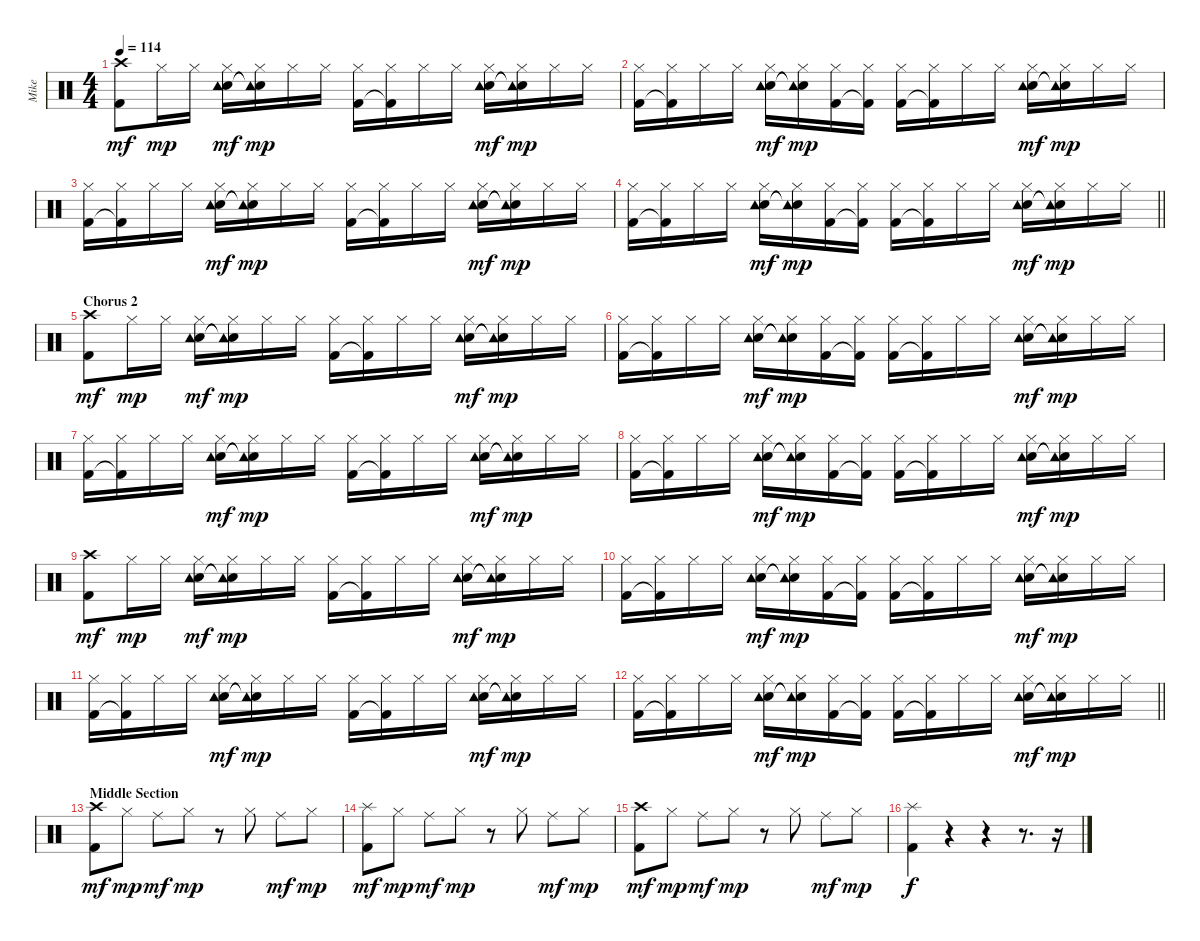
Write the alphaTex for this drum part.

\track ("Mike" "Mike") {instrument percussion}
\staff {score}
\articulation defaults
\ts (4 4)
\tempo 114
\clef neutral
\ks c
("Crash high (hit)" "Kick (hit) 2").8{dy mf} "Hi-Hat (closed)".16{dy mp} "Hi-Hat (closed)".16 ("Hi-Hat (closed)" "Electric Snare (hit)" "Tambourine (hit)").16{dy mf} ("Hi-Hat (closed)" "Electric Snare (hit)"{t} "Tambourine (hit)"{t}).16{dy mp} "Hi-Hat (closed)".16 "Hi-Hat (closed)".16 ("Hi-Hat (closed)" "Kick (hit) 2").16 ("Hi-Hat (closed)" "Kick (hit) 2"{t}).16 "Hi-Hat (closed)".16 "Hi-Hat (closed)".16 ("Hi-Hat (closed)" "Electric Snare (hit)" "Tambourine (hit)").16{dy mf} ("Hi-Hat (closed)" "Electric Snare (hit)"{t} "Tambourine (hit)"{t}).16{dy mp} "Hi-Hat (closed)".16 "Hi-Hat (closed)".16 |
("Hi-Hat (closed)" "Kick (hit) 2").16 ("Hi-Hat (closed)" "Kick (hit) 2"{t}).16 "Hi-Hat (closed)".16 "Hi-Hat (closed)".16 ("Hi-Hat (closed)" "Electric Snare (hit)" "Tambourine (hit)").16{dy mf} ("Hi-Hat (closed)" "Electric Snare (hit)"{t} "Tambourine (hit)"{t}).16{dy mp} ("Hi-Hat (closed)" "Kick (hit) 2").16 ("Hi-Hat (closed)" "Kick (hit) 2"{t}).16 ("Hi-Hat (closed)" "Kick (hit) 2").16 ("Hi-Hat (closed)" "Kick (hit) 2"{t}).16 "Hi-Hat (closed)".16 "Hi-Hat (closed)".16 ("Hi-Hat (closed)" "Electric Snare (hit)" "Tambourine (hit)").16{dy mf} ("Hi-Hat (closed)" "Electric Snare (hit)"{t} "Tambourine (hit)"{t}).16{dy mp} "Hi-Hat (closed)".16 "Hi-Hat (closed)".16 |
("Hi-Hat (closed)" "Kick (hit) 2").16 ("Hi-Hat (closed)" "Kick (hit) 2"{t}).16 "Hi-Hat (closed)".16 "Hi-Hat (closed)".16 ("Hi-Hat (closed)" "Electric Snare (hit)" "Tambourine (hit)").16{dy mf} ("Hi-Hat (closed)" "Electric Snare (hit)"{t} "Tambourine (hit)"{t}).16{dy mp} "Hi-Hat (closed)".16 "Hi-Hat (closed)".16 ("Hi-Hat (closed)" "Kick (hit) 2").16 ("Hi-Hat (closed)" "Kick (hit) 2"{t}).16 "Hi-Hat (closed)".16 "Hi-Hat (closed)".16 ("Hi-Hat (closed)" "Electric Snare (hit)" "Tambourine (hit)").16{dy mf} ("Hi-Hat (closed)" "Electric Snare (hit)"{t} "Tambourine (hit)"{t}).16{dy mp} "Hi-Hat (closed)".16 "Hi-Hat (closed)".16 |
\barLineRight lightlight
("Hi-Hat (closed)" "Kick (hit) 2").16 ("Hi-Hat (closed)" "Kick (hit) 2"{t}).16 "Hi-Hat (closed)".16 "Hi-Hat (closed)".16 ("Hi-Hat (closed)" "Electric Snare (hit)" "Tambourine (hit)").16{dy mf} ("Hi-Hat (closed)" "Electric Snare (hit)"{t} "Tambourine (hit)"{t}).16{dy mp} ("Hi-Hat (closed)" "Kick (hit) 2").16 ("Hi-Hat (closed)" "Kick (hit) 2"{t}).16 ("Hi-Hat (closed)" "Kick (hit) 2").16 ("Hi-Hat (closed)" "Kick (hit) 2"{t}).16 "Hi-Hat (closed)".16 "Hi-Hat (closed)".16 ("Hi-Hat (closed)" "Electric Snare (hit)" "Tambourine (hit)").16{dy mf} ("Hi-Hat (closed)" "Electric Snare (hit)"{t} "Tambourine (hit)"{t}).16{dy mp} "Hi-Hat (closed)".16 "Hi-Hat (closed)".16 |
\section ("" "Chorus 2")
("Crash high (hit)" "Kick (hit) 2").8{dy mf} "Hi-Hat (closed)".16{dy mp} "Hi-Hat (closed)".16 ("Hi-Hat (closed)" "Electric Snare (hit)" "Tambourine (hit)").16{dy mf} ("Hi-Hat (closed)" "Electric Snare (hit)"{t} "Tambourine (hit)"{t}).16{dy mp} "Hi-Hat (closed)".16 "Hi-Hat (closed)".16 ("Hi-Hat (closed)" "Kick (hit) 2").16 ("Hi-Hat (closed)" "Kick (hit) 2"{t}).16 "Hi-Hat (closed)".16 "Hi-Hat (closed)".16 ("Hi-Hat (closed)" "Electric Snare (hit)" "Tambourine (hit)").16{dy mf} ("Hi-Hat (closed)" "Electric Snare (hit)"{t} "Tambourine (hit)"{t}).16{dy mp} "Hi-Hat (closed)".16 "Hi-Hat (closed)".16 |
("Hi-Hat (closed)" "Kick (hit) 2").16 ("Hi-Hat (closed)" "Kick (hit) 2"{t}).16 "Hi-Hat (closed)".16 "Hi-Hat (closed)".16 ("Hi-Hat (closed)" "Electric Snare (hit)" "Tambourine (hit)").16{dy mf} ("Hi-Hat (closed)" "Electric Snare (hit)"{t} "Tambourine (hit)"{t}).16{dy mp} ("Hi-Hat (closed)" "Kick (hit) 2").16 ("Hi-Hat (closed)" "Kick (hit) 2"{t}).16 ("Hi-Hat (closed)" "Kick (hit) 2").16 ("Hi-Hat (closed)" "Kick (hit) 2"{t}).16 "Hi-Hat (closed)".16 "Hi-Hat (closed)".16 ("Hi-Hat (closed)" "Electric Snare (hit)" "Tambourine (hit)").16{dy mf} ("Hi-Hat (closed)" "Electric Snare (hit)"{t} "Tambourine (hit)"{t}).16{dy mp} "Hi-Hat (closed)".16 "Hi-Hat (closed)".16 |
("Hi-Hat (closed)" "Kick (hit) 2").16 ("Hi-Hat (closed)" "Kick (hit) 2"{t}).16 "Hi-Hat (closed)".16 "Hi-Hat (closed)".16 ("Hi-Hat (closed)" "Electric Snare (hit)" "Tambourine (hit)").16{dy mf} ("Hi-Hat (closed)" "Electric Snare (hit)"{t} "Tambourine (hit)"{t}).16{dy mp} "Hi-Hat (closed)".16 "Hi-Hat (closed)".16 ("Hi-Hat (closed)" "Kick (hit) 2").16 ("Hi-Hat (closed)" "Kick (hit) 2"{t}).16 "Hi-Hat (closed)".16 "Hi-Hat (closed)".16 ("Hi-Hat (closed)" "Electric Snare (hit)" "Tambourine (hit)").16{dy mf} ("Hi-Hat (closed)" "Electric Snare (hit)"{t} "Tambourine (hit)"{t}).16{dy mp} "Hi-Hat (closed)".16 "Hi-Hat (closed)".16 |
("Hi-Hat (closed)" "Kick (hit) 2").16 ("Hi-Hat (closed)" "Kick (hit) 2"{t}).16 "Hi-Hat (closed)".16 "Hi-Hat (closed)".16 ("Hi-Hat (closed)" "Electric Snare (hit)" "Tambourine (hit)").16{dy mf} ("Hi-Hat (closed)" "Electric Snare (hit)"{t} "Tambourine (hit)"{t}).16{dy mp} ("Hi-Hat (closed)" "Kick (hit) 2").16 ("Hi-Hat (closed)" "Kick (hit) 2"{t}).16 ("Hi-Hat (closed)" "Kick (hit) 2").16 ("Hi-Hat (closed)" "Kick (hit) 2"{t}).16 "Hi-Hat (closed)".16 "Hi-Hat (closed)".16 ("Hi-Hat (closed)" "Electric Snare (hit)" "Tambourine (hit)").16{dy mf} ("Hi-Hat (closed)" "Electric Snare (hit)"{t} "Tambourine (hit)"{t}).16{dy mp} "Hi-Hat (closed)".16 "Hi-Hat (closed)".16 |
("Crash high (hit)" "Kick (hit) 2").8{dy mf} "Hi-Hat (closed)".16{dy mp} "Hi-Hat (closed)".16 ("Hi-Hat (closed)" "Electric Snare (hit)" "Tambourine (hit)").16{dy mf} ("Hi-Hat (closed)" "Electric Snare (hit)"{t} "Tambourine (hit)"{t}).16{dy mp} "Hi-Hat (closed)".16 "Hi-Hat (closed)".16 ("Hi-Hat (closed)" "Kick (hit) 2").16 ("Hi-Hat (closed)" "Kick (hit) 2"{t}).16 "Hi-Hat (closed)".16 "Hi-Hat (closed)".16 ("Hi-Hat (closed)" "Electric Snare (hit)" "Tambourine (hit)").16{dy mf} ("Hi-Hat (closed)" "Electric Snare (hit)"{t} "Tambourine (hit)"{t}).16{dy mp} "Hi-Hat (closed)".16 "Hi-Hat (closed)".16 |
("Hi-Hat (closed)" "Kick (hit) 2").16 ("Hi-Hat (closed)" "Kick (hit) 2"{t}).16 "Hi-Hat (closed)".16 "Hi-Hat (closed)".16 ("Hi-Hat (closed)" "Electric Snare (hit)" "Tambourine (hit)").16{dy mf} ("Hi-Hat (closed)" "Electric Snare (hit)"{t} "Tambourine (hit)"{t}).16{dy mp} ("Hi-Hat (closed)" "Kick (hit) 2").16 ("Hi-Hat (closed)" "Kick (hit) 2"{t}).16 ("Hi-Hat (closed)" "Kick (hit) 2").16 ("Hi-Hat (closed)" "Kick (hit) 2"{t}).16 "Hi-Hat (closed)".16 "Hi-Hat (closed)".16 ("Hi-Hat (closed)" "Electric Snare (hit)" "Tambourine (hit)").16{dy mf} ("Hi-Hat (closed)" "Electric Snare (hit)"{t} "Tambourine (hit)"{t}).16{dy mp} "Hi-Hat (closed)".16 "Hi-Hat (closed)".16 |
("Hi-Hat (closed)" "Kick (hit) 2").16 ("Hi-Hat (closed)" "Kick (hit) 2"{t}).16 "Hi-Hat (closed)".16 "Hi-Hat (closed)".16 ("Hi-Hat (closed)" "Electric Snare (hit)" "Tambourine (hit)").16{dy mf} ("Hi-Hat (closed)" "Electric Snare (hit)"{t} "Tambourine (hit)"{t}).16{dy mp} "Hi-Hat (closed)".16 "Hi-Hat (closed)".16 ("Hi-Hat (closed)" "Kick (hit) 2").16 ("Hi-Hat (closed)" "Kick (hit) 2"{t}).16 "Hi-Hat (closed)".16 "Hi-Hat (closed)".16 ("Hi-Hat (closed)" "Electric Snare (hit)" "Tambourine (hit)").16{dy mf} ("Hi-Hat (closed)" "Electric Snare (hit)"{t} "Tambourine (hit)"{t}).16{dy mp} "Hi-Hat (closed)".16 "Hi-Hat (closed)".16 |
\barLineRight lightlight
("Hi-Hat (closed)" "Kick (hit) 2").16 ("Hi-Hat (closed)" "Kick (hit) 2"{t}).16 "Hi-Hat (closed)".16 "Hi-Hat (closed)".16 ("Hi-Hat (closed)" "Electric Snare (hit)" "Tambourine (hit)").16{dy mf} ("Hi-Hat (closed)" "Electric Snare (hit)"{t} "Tambourine (hit)"{t}).16{dy mp} ("Hi-Hat (closed)" "Kick (hit) 2").16 ("Hi-Hat (closed)" "Kick (hit) 2"{t}).16 ("Hi-Hat (closed)" "Kick (hit) 2").16 ("Hi-Hat (closed)" "Kick (hit) 2"{t}).16 "Hi-Hat (closed)".16 "Hi-Hat (closed)".16 ("Hi-Hat (closed)" "Electric Snare (hit)" "Tambourine (hit)").16{dy mf} ("Hi-Hat (closed)" "Electric Snare (hit)"{t} "Tambourine (hit)"{t}).16{dy mp} "Hi-Hat (closed)".16 "Hi-Hat (closed)".16 |
\section ("" "Middle Section")
("Crash high (hit)" "Kick (hit) 2").8{dy mf} "Hi-Hat (closed)".8{dy mp} "Ride (middle)".8{dy mf} "Hi-Hat (closed)".8{dy mp} r.8 "Hi-Hat (closed)".8 "Ride (middle)".8{dy mf} "Hi-Hat (closed)".8{dy mp} |
("Splash (hit)" "Kick (hit) 2").8{dy mf} "Hi-Hat (closed)".8{dy mp} "Ride (middle)".8{dy mf} "Hi-Hat (closed)".8{dy mp} r.8 "Hi-Hat (closed)".8 "Ride (middle)".8{dy mf} "Hi-Hat (closed)".8{dy mp} |
("Crash high (hit)" "Kick (hit) 2").8{dy mf} "Hi-Hat (closed)".8{dy mp} "Ride (middle)".8{dy mf} "Hi-Hat (closed)".8{dy mp} r.8 "Hi-Hat (closed)".8 "Ride (middle)".8{dy mf} "Hi-Hat (closed)".8{dy mp} |
("Splash (hit)" "Kick (hit) 2").4{dy f} r.4 r.4 r.8{d} r.16
